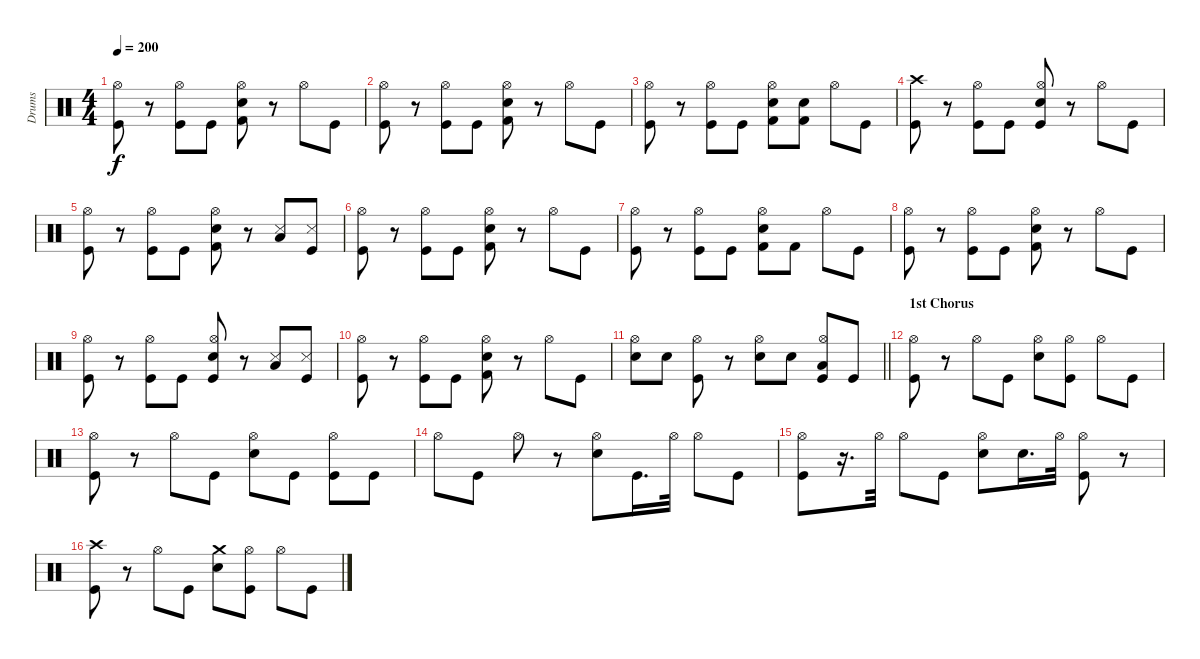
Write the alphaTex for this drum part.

\track ("Drums" "Drums") {instrument percussion}
\staff {score}
\articulation defaults
\ts (4 4)
\tempo 200
\clef neutral
\ks c
("Kick (hit)" "Hi-Hat (open)").8{dy f} r.8 ("Kick (hit)" "Hi-Hat (open)").8 "Kick (hit)".8 ("Kick (hit) 2" "Electric Snare (hit)" "Hi-Hat (open)").8 r.8 "Hi-Hat (open)".8 "Kick (hit)".8 |
("Kick (hit)" "Hi-Hat (open)").8 r.8 ("Kick (hit)" "Hi-Hat (open)").8 "Kick (hit)".8 ("Kick (hit) 2" "Electric Snare (hit)" "Hi-Hat (open)").8 r.8 "Hi-Hat (open)".8 "Kick (hit)".8 |
("Kick (hit)" "Hi-Hat (open)").8 r.8 ("Kick (hit)" "Hi-Hat (open)").8 "Kick (hit)".8 ("Kick (hit) 2" "Snare (hit) 2" "Hi-Hat (open)").8 ("Kick (hit) 2" "Electric Snare (hit)").8 "Hi-Hat (open)".8 "Kick (hit)".8 |
("Kick (hit)" "Crash high (hit)").8 r.8 ("Kick (hit)" "Hi-Hat (open)").8 "Kick (hit)".8 ("Kick (hit)" "Electric Snare (hit)" "Hi-Hat (open)").8 r.8 "Hi-Hat (open)".8 "Kick (hit)".8 |
("Kick (hit)" "Hi-Hat (open)").8 r.8 ("Kick (hit)" "Hi-Hat (open)").8 "Kick (hit)".8 ("Kick (hit) 2" "Electric Snare (hit)" "Hi-Hat (open)").8 r.8 ("Snare (side stick) 3" "Low Floor Tom (hit)").8 ("Kick (hit)" "Snare (side stick) 3").8 |
("Kick (hit)" "Hi-Hat (open)").8 r.8 ("Kick (hit)" "Hi-Hat (open)").8 "Kick (hit)".8 ("Kick (hit) 2" "Electric Snare (hit)" "Hi-Hat (open)").8 r.8 "Hi-Hat (open)".8 "Kick (hit)".8 |
("Kick (hit)" "Hi-Hat (open)").8 r.8 ("Kick (hit)" "Hi-Hat (open)").8 "Kick (hit)".8 ("Kick (hit) 2" "Electric Snare (hit)" "Hi-Hat (open)").8 "Kick (hit) 2".8 "Hi-Hat (open)".8 "Kick (hit)".8 |
("Kick (hit)" "Hi-Hat (open)").8 r.8 ("Kick (hit)" "Hi-Hat (open)").8 "Kick (hit)".8 ("Kick (hit) 2" "Electric Snare (hit)" "Hi-Hat (open)").8 r.8 "Hi-Hat (open)".8 "Kick (hit)".8 |
("Kick (hit)" "Hi-Hat (open)").8 r.8 ("Kick (hit)" "Hi-Hat (open)").8 "Kick (hit)".8 ("Kick (hit)" "Electric Snare (hit)" "Hi-Hat (open)").8 r.8 ("Snare (side stick) 3" "Low Floor Tom (hit)").8 ("Kick (hit)" "Snare (side stick) 3").8 |
("Kick (hit)" "Hi-Hat (open)").8 r.8 ("Kick (hit)" "Hi-Hat (open)").8 "Kick (hit)".8 ("Kick (hit) 2" "Electric Snare (hit)" "Hi-Hat (open)").8 r.8 "Hi-Hat (open)".8 "Kick (hit)".8 |
\barLineRight lightlight
("Snare (hit) 2" "Hi-Hat (open)").8 "Electric Snare (hit)".8 ("Kick (hit)" "Hi-Hat (open)").8 r.8 ("Snare (hit) 2" "Hi-Hat (open)").8 "Electric Snare (hit)".8 ("Kick (hit)" "Hi-Hat (open)" "Low Floor Tom (hit)").8 "Kick (hit)".8 |
\section ("" "1st Chorus")
("Kick (hit)" "Hi-Hat (open)").8 r.8 "Hi-Hat (open)".8 "Kick (hit)".8 ("Electric Snare (hit)" "Hi-Hat (open)").8 ("Kick (hit)" "Hi-Hat (open)").8 "Hi-Hat (open)".8 "Kick (hit)".8 |
("Kick (hit)" "Hi-Hat (open)").8 r.8 "Hi-Hat (open)".8 "Kick (hit)".8 ("Electric Snare (hit)" "Hi-Hat (open)").8 "Kick (hit)".8 ("Kick (hit)" "Hi-Hat (open)").8 "Kick (hit)".8 |
"Hi-Hat (open)".8 "Kick (hit)".8 "Hi-Hat (open)".8 r.8 ("Electric Snare (hit)" "Hi-Hat (open)").8 "Kick (hit)".16{d} "Hi-Hat (open)".32 "Hi-Hat (open)".8 "Kick (hit)".8 |
("Kick (hit)" "Hi-Hat (open)").8 r.16{d} "Hi-Hat (open)".32 "Hi-Hat (open)".8 "Kick (hit)".8 ("Snare (hit) 2" "Hi-Hat (open)").8 "Electric Snare (hit)".16{d} "Hi-Hat (open)".32 ("Kick (hit)" "Hi-Hat (open)").8 r.8 |
("Kick (hit)" "Crash high (hit)").8 r.8 "Hi-Hat (open)".8 "Kick (hit)".8 ("Electric Snare (hit)" "Crash medium (hit)").8 ("Kick (hit)" "Hi-Hat (open)").8 "Hi-Hat (open)".8 "Kick (hit)".8
